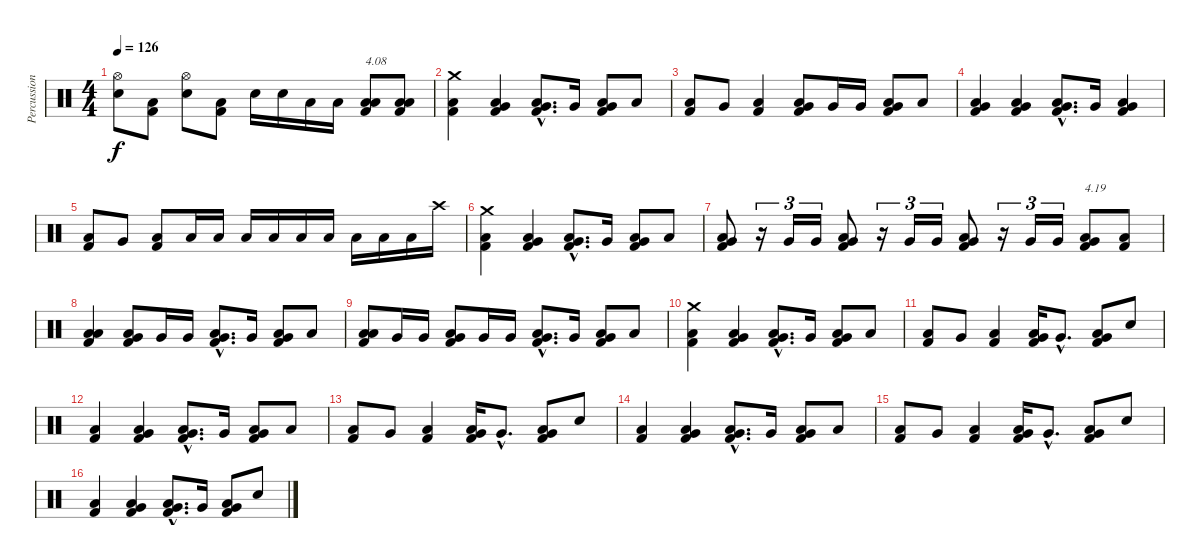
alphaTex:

\track ("Percussions" "Percussion") {instrument percussion}
\staff {score}
\articulation defaults
\ts (4 4)
\tempo 126
\clef neutral
\ks c
("Snare (hit) 2" "Hi-Hat (open)").8{dy f} ("Kick (hit) 2" "Low Floor Tom (hit)").8 ("Snare (hit) 2" "Hi-Hat (open)").8 ("Kick (hit) 2" "Low Floor Tom (hit)").8 "Snare (hit) 2".16 "Snare (hit) 2".16 "Low Tom (hit)".16 "Low Tom (hit)".16 ("Kick (hit) 2" "Low Floor Tom (hit)" "Low Tom (hit)").8{txt "4.08"} ("Kick (hit) 2" "Low Floor Tom (hit)" "Low Tom (hit)").8 |
("Kick (hit) 2" "Low Floor Tom (hit)" "Crash medium (hit)").4 ("Kick (hit) 2" "Low Floor Tom (hit)" "Very Low Tom (hit)").4 ("Kick (hit) 2"{hac} "Low Floor Tom (hit)"{hac} "Very Low Tom (hit)"{hac}).8{d} "Very Low Tom (hit)".16 ("Kick (hit) 2" "Low Floor Tom (hit)" "Very Low Tom (hit)").8 "Low Tom (hit)".8 |
("Kick (hit) 2" "Low Floor Tom (hit)").8 "Very Low Tom (hit)".8 ("Kick (hit) 2" "Low Floor Tom (hit)").4 ("Kick (hit) 2" "Low Floor Tom (hit)" "Very Low Tom (hit)").8 "Very Low Tom (hit)".16 "Very Low Tom (hit)".16 ("Kick (hit) 2" "Low Floor Tom (hit)" "Very Low Tom (hit)").8 "Low Tom (hit)".8 |
("Kick (hit) 2" "Low Floor Tom (hit)" "Very Low Tom (hit)").4 ("Kick (hit) 2" "Low Floor Tom (hit)" "Very Low Tom (hit)").4 ("Kick (hit) 2"{hac} "Low Floor Tom (hit)"{hac} "Very Low Tom (hit)"{hac}).8{d} "Very Low Tom (hit)".16 ("Kick (hit) 2" "Low Floor Tom (hit)" "Very Low Tom (hit)").4 |
("Kick (hit) 2" "Low Floor Tom (hit)").8 "Very Low Tom (hit)".8 ("Kick (hit) 2" "Low Floor Tom (hit)").8 "Low Tom (hit)".16 "Low Tom (hit)".16 "Low Tom (hit)".16 "Low Tom (hit)".16 "Low Tom (hit)".16 "Low Tom (hit)".16 "Low Tom (hit)".16 "Low Tom (hit)".16 "Low Tom (hit)".16 "Crash high (hit)".16 |
("Kick (hit) 2" "Low Floor Tom (hit)" "Crash medium (hit)").4 ("Kick (hit) 2" "Low Floor Tom (hit)" "Very Low Tom (hit)").4 ("Kick (hit) 2"{hac} "Low Floor Tom (hit)"{hac} "Very Low Tom (hit)"{hac}).8{d} "Very Low Tom (hit)".16 ("Kick (hit) 2" "Low Floor Tom (hit)" "Very Low Tom (hit)").8 "Low Tom (hit)".8 |
("Kick (hit) 2" "Low Floor Tom (hit)" "Very Low Tom (hit)").8 r.16{tu (3 2)} "Very Low Tom (hit)".16{tu (3 2)} "Very Low Tom (hit)".16{tu (3 2)} ("Kick (hit) 2" "Low Floor Tom (hit)" "Very Low Tom (hit)").8 r.16{tu (3 2)} "Very Low Tom (hit)".16{tu (3 2)} "Very Low Tom (hit)".16{tu (3 2)} ("Kick (hit) 2" "Low Floor Tom (hit)" "Very Low Tom (hit)").8 r.16{tu (3 2)} "Very Low Tom (hit)".16{tu (3 2)} "Very Low Tom (hit)".16{tu (3 2)} ("Kick (hit) 2" "Low Floor Tom (hit)" "Very Low Tom (hit)").8{txt "4.19"} ("Kick (hit) 2" "Low Floor Tom (hit)").8 |
("Kick (hit) 2" "Low Floor Tom (hit)" "Low Tom (hit)").4 ("Kick (hit) 2" "Low Floor Tom (hit)" "Very Low Tom (hit)").8 "Very Low Tom (hit)".16 "Very Low Tom (hit)".16 ("Kick (hit) 2"{hac} "Low Floor Tom (hit)"{hac} "Very Low Tom (hit)"{hac}).8{d} "Very Low Tom (hit)".16 ("Kick (hit) 2" "Low Floor Tom (hit)" "Very Low Tom (hit)").8 "Low Tom (hit)".8 |
("Kick (hit) 2" "Low Floor Tom (hit)" "Low Tom (hit)").8 "Very Low Tom (hit)".16 "Very Low Tom (hit)".16 ("Kick (hit) 2" "Low Floor Tom (hit)" "Very Low Tom (hit)").8 "Very Low Tom (hit)".16 "Very Low Tom (hit)".16 ("Kick (hit) 2"{hac} "Low Floor Tom (hit)"{hac} "Very Low Tom (hit)"{hac}).8{d} "Very Low Tom (hit)".16 ("Kick (hit) 2" "Low Floor Tom (hit)" "Very Low Tom (hit)").8 "Low Tom (hit)".8 |
("Kick (hit) 2" "Low Floor Tom (hit)" "Crash medium (hit)").4 ("Kick (hit) 2" "Low Floor Tom (hit)" "Very Low Tom (hit)").4 ("Kick (hit) 2"{hac} "Low Floor Tom (hit)"{hac} "Very Low Tom (hit)"{hac}).8{d} "Very Low Tom (hit)".16 ("Kick (hit) 2" "Low Floor Tom (hit)" "Very Low Tom (hit)").8 "Low Tom (hit)".8 |
("Kick (hit) 2" "Low Floor Tom (hit)").8 "Very Low Tom (hit)".8 ("Kick (hit) 2" "Low Floor Tom (hit)").4 ("Kick (hit) 2" "Low Floor Tom (hit)" "Very Low Tom (hit)").16 "Very Low Tom (hit)"{hac}.8{d} ("Kick (hit) 2" "Low Floor Tom (hit)" "Very Low Tom (hit)").8 "Snare (hit) 2".8 |
("Kick (hit) 2" "Low Floor Tom (hit)").4 ("Kick (hit) 2" "Low Floor Tom (hit)" "Very Low Tom (hit)").4 ("Kick (hit) 2"{hac} "Low Floor Tom (hit)"{hac} "Very Low Tom (hit)"{hac}).8{d} "Very Low Tom (hit)".16 ("Kick (hit) 2" "Low Floor Tom (hit)" "Very Low Tom (hit)").8 "Low Tom (hit)".8 |
("Kick (hit) 2" "Low Floor Tom (hit)").8 "Very Low Tom (hit)".8 ("Kick (hit) 2" "Low Floor Tom (hit)").4 ("Kick (hit) 2" "Low Floor Tom (hit)" "Very Low Tom (hit)").16 "Very Low Tom (hit)"{hac}.8{d} ("Kick (hit) 2" "Low Floor Tom (hit)" "Very Low Tom (hit)").8 "Snare (hit) 2".8 |
("Kick (hit) 2" "Low Floor Tom (hit)").4 ("Kick (hit) 2" "Low Floor Tom (hit)" "Very Low Tom (hit)").4 ("Kick (hit) 2"{hac} "Low Floor Tom (hit)"{hac} "Very Low Tom (hit)"{hac}).8{d} "Very Low Tom (hit)".16 ("Kick (hit) 2" "Low Floor Tom (hit)" "Very Low Tom (hit)").8 "Low Tom (hit)".8 |
("Kick (hit) 2" "Low Floor Tom (hit)").8 "Very Low Tom (hit)".8 ("Kick (hit) 2" "Low Floor Tom (hit)").4 ("Kick (hit) 2" "Low Floor Tom (hit)" "Very Low Tom (hit)").16 "Very Low Tom (hit)"{hac}.8{d} ("Kick (hit) 2" "Low Floor Tom (hit)" "Very Low Tom (hit)").8 "Snare (hit) 2".8 |
("Kick (hit) 2" "Low Floor Tom (hit)").4 ("Kick (hit) 2" "Low Floor Tom (hit)" "Very Low Tom (hit)").4 ("Kick (hit) 2"{hac} "Low Floor Tom (hit)"{hac} "Very Low Tom (hit)"{hac}).8{d} "Very Low Tom (hit)".16 ("Kick (hit) 2" "Low Floor Tom (hit)" "Very Low Tom (hit)").8 "Snare (hit) 2".8
